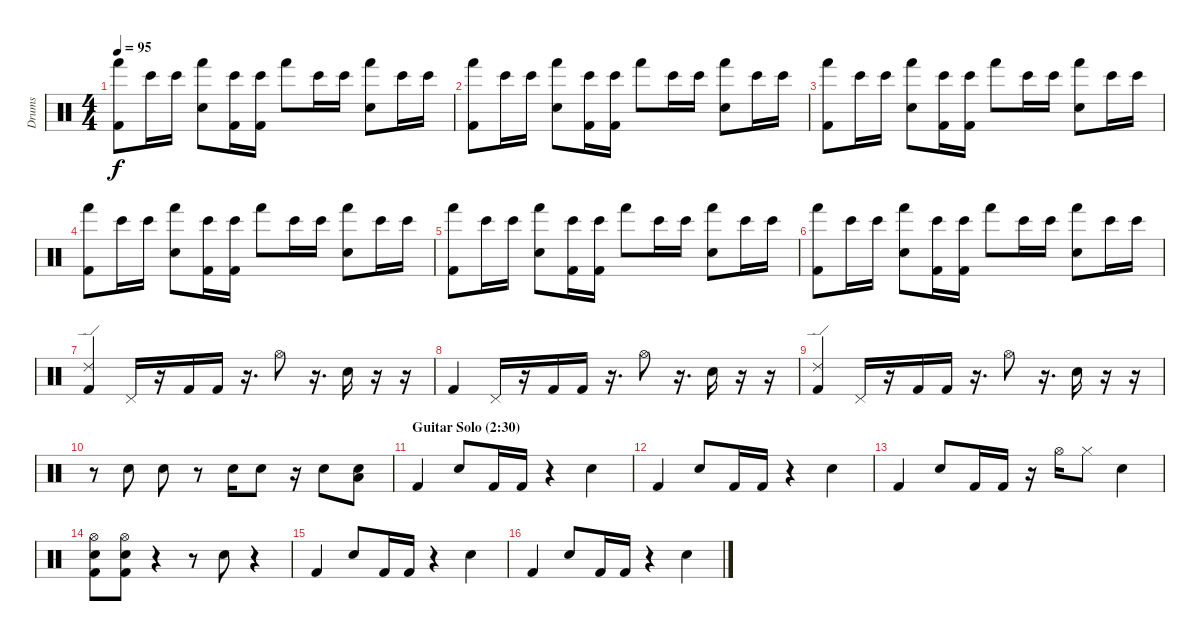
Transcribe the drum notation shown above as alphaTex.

\track ("Drums" "Drums") {instrument percussion}
\staff {score}
\articulation defaults
\ts (4 4)
\tempo 95
\clef neutral
\ks c
("Hand (hit)" "Kick (hit) 2").8{dy f} "Bongo High (hit)".16 "Bongo High (hit)".16 ("Hand (hit)" "Snare (hit) 2").8 ("Bongo High (hit)" "Kick (hit) 2").16 ("Bongo High (hit)" "Kick (hit) 2").16 "Hand (hit)".8 "Bongo High (hit)".16 "Bongo High (hit)".16 ("Hand (hit)" "Snare (hit) 2").8 "Bongo High (hit)".16 "Bongo High (hit)".16 |
("Hand (hit)" "Kick (hit) 2").8 "Bongo High (hit)".16 "Bongo High (hit)".16 ("Hand (hit)" "Snare (hit) 2").8 ("Bongo High (hit)" "Kick (hit) 2").16 ("Bongo High (hit)" "Kick (hit) 2").16 "Hand (hit)".8 "Bongo High (hit)".16 "Bongo High (hit)".16 ("Hand (hit)" "Snare (hit) 2").8 "Bongo High (hit)".16 "Bongo High (hit)".16 |
("Hand (hit)" "Kick (hit) 2").8 "Bongo High (hit)".16 "Bongo High (hit)".16 ("Hand (hit)" "Snare (hit) 2").8 ("Bongo High (hit)" "Kick (hit) 2").16 ("Bongo High (hit)" "Kick (hit) 2").16 "Hand (hit)".8 "Bongo High (hit)".16 "Bongo High (hit)".16 ("Hand (hit)" "Snare (hit) 2").8 "Bongo High (hit)".16 "Bongo High (hit)".16 |
("Hand (hit)" "Kick (hit) 2").8 "Bongo High (hit)".16 "Bongo High (hit)".16 ("Hand (hit)" "Snare (hit) 2").8 ("Bongo High (hit)" "Kick (hit) 2").16 ("Bongo High (hit)" "Kick (hit) 2").16 "Hand (hit)".8 "Bongo High (hit)".16 "Bongo High (hit)".16 ("Hand (hit)" "Snare (hit) 2").8 "Bongo High (hit)".16 "Bongo High (hit)".16 |
("Hand (hit)" "Kick (hit) 2").8 "Bongo High (hit)".16 "Bongo High (hit)".16 ("Hand (hit)" "Snare (hit) 2").8 ("Bongo High (hit)" "Kick (hit) 2").16 ("Bongo High (hit)" "Kick (hit) 2").16 "Hand (hit)".8 "Bongo High (hit)".16 "Bongo High (hit)".16 ("Hand (hit)" "Snare (hit) 2").8 "Bongo High (hit)".16 "Bongo High (hit)".16 |
("Hand (hit)" "Kick (hit) 2").8 "Bongo High (hit)".16 "Bongo High (hit)".16 ("Hand (hit)" "Snare (hit) 2").8 ("Bongo High (hit)" "Kick (hit) 2").16 ("Bongo High (hit)" "Kick (hit) 2").16 "Hand (hit)".8 "Bongo High (hit)".16 "Bongo High (hit)".16 ("Hand (hit)" "Snare (hit) 2").8 "Bongo High (hit)".16 "Bongo High (hit)".16 |
("Ride (edge) 2" "Kick (hit) 2").4 "Pedal Hi-Hat (hit)".16 r.16 "Kick (hit) 2".16 "Kick (hit) 2".16 r.16{d} "Hi-Hat (open)".8 r.16{d} "Snare (hit) 2".16 r.16 r.16 |
"Kick (hit) 2".4 "Pedal Hi-Hat (hit)".16 r.16 "Kick (hit) 2".16 "Kick (hit) 2".16 r.16{d} "Hi-Hat (open)".8 r.16{d} "Snare (hit) 2".16 r.16 r.16 |
("Ride (edge) 2" "Kick (hit) 2").4 "Pedal Hi-Hat (hit)".16 r.16 "Kick (hit) 2".16 "Kick (hit) 2".16 r.16{d} "Hi-Hat (open)".8 r.16{d} "Snare (hit) 2".16 r.16 r.16 |
r.8 "Snare (hit) 2".8 "Snare (hit) 2".8 r.8 "Snare (hit) 2".16 "Snare (hit) 2".8 r.16 "Snare (hit) 2".8 ("Low Floor Tom (hit)" "Snare (hit) 2").8 |
\section ("" "Guitar Solo (2:30)")
"Kick (hit) 2".4 "Snare (hit) 2".8 "Kick (hit) 2".16 "Kick (hit) 2".16 r.4 "Snare (hit) 2".4 |
"Kick (hit) 2".4 "Snare (hit) 2".8 "Kick (hit) 2".16 "Kick (hit) 2".16 r.4 "Snare (hit) 2".4 |
"Kick (hit) 2".4 "Snare (hit) 2".8 "Kick (hit) 2".16 "Kick (hit) 2".16 r.16 "Hi-Hat (open)".16 "Hi-Hat (closed)".8 "Snare (hit) 2".4 |
("Hi-Hat (open)" "Snare (hit) 2" "Kick (hit) 2").8 ("Hi-Hat (open)" "Snare (hit) 2" "Kick (hit) 2").8 r.4 r.8 "Snare (hit) 2".8 r.4 |
"Kick (hit) 2".4 "Snare (hit) 2".8 "Kick (hit) 2".16 "Kick (hit) 2".16 r.4 "Snare (hit) 2".4 |
"Kick (hit) 2".4 "Snare (hit) 2".8 "Kick (hit) 2".16 "Kick (hit) 2".16 r.4 "Snare (hit) 2".4
